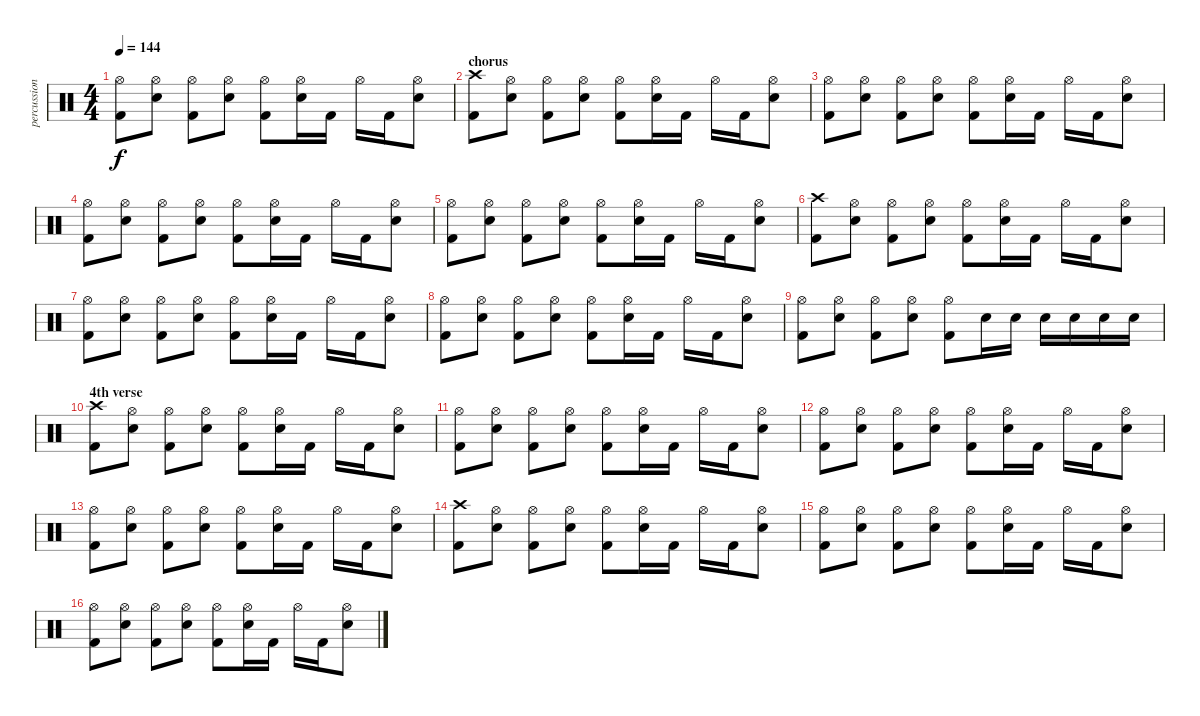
\track ("percussion" "percussion") {instrument percussion}
\staff {score}
\articulation defaults
\ts (4 4)
\tempo 144
\clef neutral
\ks c
("Hi-Hat (open)" "Kick (hit) 2").8{dy f} ("Hi-Hat (open)" "Electric Snare (hit)").8 ("Hi-Hat (open)" "Kick (hit) 2").8 ("Hi-Hat (open)" "Electric Snare (hit)").8 ("Hi-Hat (open)" "Kick (hit) 2").8 ("Hi-Hat (open)" "Electric Snare (hit)").16 "Kick (hit) 2".16 "Hi-Hat (open)".16 "Kick (hit) 2".16 ("Hi-Hat (open)" "Electric Snare (hit)").8 |
\section ("" "chorus")
("Crash high (hit)" "Kick (hit) 2").8 ("Hi-Hat (open)" "Electric Snare (hit)").8 ("Hi-Hat (open)" "Kick (hit) 2").8 ("Hi-Hat (open)" "Electric Snare (hit)").8 ("Hi-Hat (open)" "Kick (hit) 2").8 ("Hi-Hat (open)" "Electric Snare (hit)").16 "Kick (hit) 2".16 "Hi-Hat (open)".16 "Kick (hit) 2".16 ("Hi-Hat (open)" "Electric Snare (hit)").8 |
("Hi-Hat (open)" "Kick (hit) 2").8 ("Hi-Hat (open)" "Electric Snare (hit)").8 ("Hi-Hat (open)" "Kick (hit) 2").8 ("Hi-Hat (open)" "Electric Snare (hit)").8 ("Hi-Hat (open)" "Kick (hit) 2").8 ("Hi-Hat (open)" "Electric Snare (hit)").16 "Kick (hit) 2".16 "Hi-Hat (open)".16 "Kick (hit) 2".16 ("Hi-Hat (open)" "Electric Snare (hit)").8 |
("Hi-Hat (open)" "Kick (hit) 2").8 ("Hi-Hat (open)" "Electric Snare (hit)").8 ("Hi-Hat (open)" "Kick (hit) 2").8 ("Hi-Hat (open)" "Electric Snare (hit)").8 ("Hi-Hat (open)" "Kick (hit) 2").8 ("Hi-Hat (open)" "Electric Snare (hit)").16 "Kick (hit) 2".16 "Hi-Hat (open)".16 "Kick (hit) 2".16 ("Hi-Hat (open)" "Electric Snare (hit)").8 |
("Hi-Hat (open)" "Kick (hit) 2").8 ("Hi-Hat (open)" "Electric Snare (hit)").8 ("Hi-Hat (open)" "Kick (hit) 2").8 ("Hi-Hat (open)" "Electric Snare (hit)").8 ("Hi-Hat (open)" "Kick (hit) 2").8 ("Hi-Hat (open)" "Electric Snare (hit)").16 "Kick (hit) 2".16 "Hi-Hat (open)".16 "Kick (hit) 2".16 ("Hi-Hat (open)" "Electric Snare (hit)").8 |
("Crash high (hit)" "Kick (hit) 2").8 ("Hi-Hat (open)" "Electric Snare (hit)").8 ("Hi-Hat (open)" "Kick (hit) 2").8 ("Hi-Hat (open)" "Electric Snare (hit)").8 ("Hi-Hat (open)" "Kick (hit) 2").8 ("Hi-Hat (open)" "Electric Snare (hit)").16 "Kick (hit) 2".16 "Hi-Hat (open)".16 "Kick (hit) 2".16 ("Hi-Hat (open)" "Electric Snare (hit)").8 |
("Hi-Hat (open)" "Kick (hit) 2").8 ("Hi-Hat (open)" "Electric Snare (hit)").8 ("Hi-Hat (open)" "Kick (hit) 2").8 ("Hi-Hat (open)" "Electric Snare (hit)").8 ("Hi-Hat (open)" "Kick (hit) 2").8 ("Hi-Hat (open)" "Electric Snare (hit)").16 "Kick (hit) 2".16 "Hi-Hat (open)".16 "Kick (hit) 2".16 ("Hi-Hat (open)" "Electric Snare (hit)").8 |
("Hi-Hat (open)" "Kick (hit) 2").8 ("Hi-Hat (open)" "Electric Snare (hit)").8 ("Hi-Hat (open)" "Kick (hit) 2").8 ("Hi-Hat (open)" "Electric Snare (hit)").8 ("Hi-Hat (open)" "Kick (hit) 2").8 ("Hi-Hat (open)" "Electric Snare (hit)").16 "Kick (hit) 2".16 "Hi-Hat (open)".16 "Kick (hit) 2".16 ("Hi-Hat (open)" "Electric Snare (hit)").8 |
("Hi-Hat (open)" "Kick (hit) 2").8 ("Hi-Hat (open)" "Electric Snare (hit)").8 ("Hi-Hat (open)" "Kick (hit) 2").8 ("Hi-Hat (open)" "Electric Snare (hit)").8 ("Hi-Hat (open)" "Kick (hit) 2").8 "Electric Snare (hit)".16 "Electric Snare (hit)".16 "Electric Snare (hit)".16 "Electric Snare (hit)".16 "Electric Snare (hit)".16 "Electric Snare (hit)".16 |
\section ("" "4th verse")
("Crash high (hit)" "Kick (hit) 2").8 ("Hi-Hat (open)" "Electric Snare (hit)").8 ("Hi-Hat (open)" "Kick (hit) 2").8 ("Hi-Hat (open)" "Electric Snare (hit)").8 ("Hi-Hat (open)" "Kick (hit) 2").8 ("Hi-Hat (open)" "Electric Snare (hit)").16 "Kick (hit) 2".16 "Hi-Hat (open)".16 "Kick (hit) 2".16 ("Hi-Hat (open)" "Electric Snare (hit)").8 |
("Hi-Hat (open)" "Kick (hit) 2").8 ("Hi-Hat (open)" "Electric Snare (hit)").8 ("Hi-Hat (open)" "Kick (hit) 2").8 ("Hi-Hat (open)" "Electric Snare (hit)").8 ("Hi-Hat (open)" "Kick (hit) 2").8 ("Hi-Hat (open)" "Electric Snare (hit)").16 "Kick (hit) 2".16 "Hi-Hat (open)".16 "Kick (hit) 2".16 ("Hi-Hat (open)" "Electric Snare (hit)").8 |
("Hi-Hat (open)" "Kick (hit) 2").8 ("Hi-Hat (open)" "Electric Snare (hit)").8 ("Hi-Hat (open)" "Kick (hit) 2").8 ("Hi-Hat (open)" "Electric Snare (hit)").8 ("Hi-Hat (open)" "Kick (hit) 2").8 ("Hi-Hat (open)" "Electric Snare (hit)").16 "Kick (hit) 2".16 "Hi-Hat (open)".16 "Kick (hit) 2".16 ("Hi-Hat (open)" "Electric Snare (hit)").8 |
("Hi-Hat (open)" "Kick (hit) 2").8 ("Hi-Hat (open)" "Electric Snare (hit)").8 ("Hi-Hat (open)" "Kick (hit) 2").8 ("Hi-Hat (open)" "Electric Snare (hit)").8 ("Hi-Hat (open)" "Kick (hit) 2").8 ("Hi-Hat (open)" "Electric Snare (hit)").16 "Kick (hit) 2".16 "Hi-Hat (open)".16 "Kick (hit) 2".16 ("Hi-Hat (open)" "Electric Snare (hit)").8 |
("Crash high (hit)" "Kick (hit) 2").8 ("Hi-Hat (open)" "Electric Snare (hit)").8 ("Hi-Hat (open)" "Kick (hit) 2").8 ("Hi-Hat (open)" "Electric Snare (hit)").8 ("Hi-Hat (open)" "Kick (hit) 2").8 ("Hi-Hat (open)" "Electric Snare (hit)").16 "Kick (hit) 2".16 "Hi-Hat (open)".16 "Kick (hit) 2".16 ("Hi-Hat (open)" "Electric Snare (hit)").8 |
("Hi-Hat (open)" "Kick (hit) 2").8 ("Hi-Hat (open)" "Electric Snare (hit)").8 ("Hi-Hat (open)" "Kick (hit) 2").8 ("Hi-Hat (open)" "Electric Snare (hit)").8 ("Hi-Hat (open)" "Kick (hit) 2").8 ("Hi-Hat (open)" "Electric Snare (hit)").16 "Kick (hit) 2".16 "Hi-Hat (open)".16 "Kick (hit) 2".16 ("Hi-Hat (open)" "Electric Snare (hit)").8 |
("Hi-Hat (open)" "Kick (hit) 2").8 ("Hi-Hat (open)" "Electric Snare (hit)").8 ("Hi-Hat (open)" "Kick (hit) 2").8 ("Hi-Hat (open)" "Electric Snare (hit)").8 ("Hi-Hat (open)" "Kick (hit) 2").8 ("Hi-Hat (open)" "Electric Snare (hit)").16 "Kick (hit) 2".16 "Hi-Hat (open)".16 "Kick (hit) 2".16 ("Hi-Hat (open)" "Electric Snare (hit)").8
